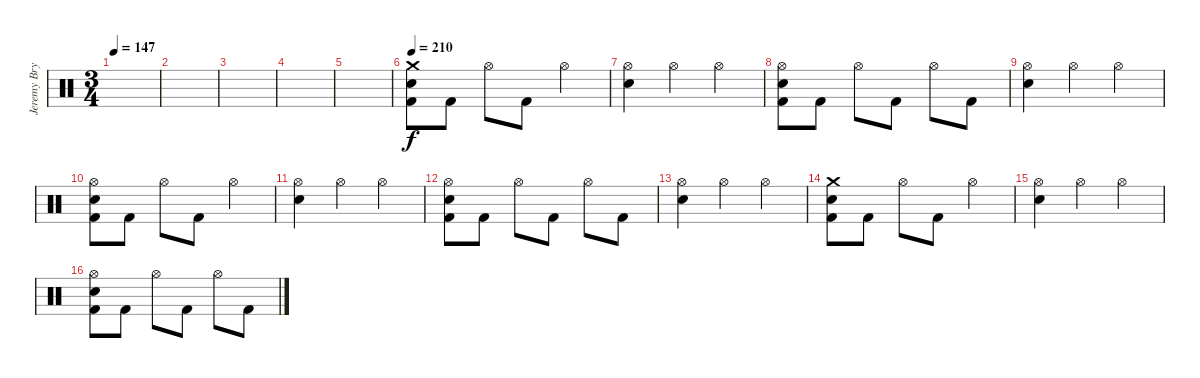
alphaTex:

\track ("Jeremy Bryan - Drums" "Jeremy Bry") {instrument percussion}
\staff {score}
\articulation defaults
\ts (3 4)
\tempo 147
\clef neutral
\ks c
|
|
|
|
|
\tempo 210
("Crash medium (hit)" "Electric Snare (hit)" "Kick (hit) 2").8 "Kick (hit) 2".8 "Hi-Hat (open)".8 "Kick (hit) 2".8 "Hi-Hat (open)".4 |
("Hi-Hat (open)" "Electric Snare (hit)").4 "Hi-Hat (open)".4 "Hi-Hat (open)".4 |
("Hi-Hat (open)" "Electric Snare (hit)" "Kick (hit) 2").8 "Kick (hit) 2".8 "Hi-Hat (open)".8 "Kick (hit) 2".8 "Hi-Hat (open)".8 "Kick (hit) 2".8 |
("Hi-Hat (open)" "Electric Snare (hit)").4 "Hi-Hat (open)".4 "Hi-Hat (open)".4 |
("Hi-Hat (open)" "Electric Snare (hit)" "Kick (hit) 2").8 "Kick (hit) 2".8 "Hi-Hat (open)".8 "Kick (hit) 2".8 "Hi-Hat (open)".4 |
("Hi-Hat (open)" "Electric Snare (hit)").4 "Hi-Hat (open)".4 "Hi-Hat (open)".4 |
("Hi-Hat (open)" "Electric Snare (hit)" "Kick (hit) 2").8 "Kick (hit) 2".8 "Hi-Hat (open)".8 "Kick (hit) 2".8 "Hi-Hat (open)".8 "Kick (hit) 2".8 |
("Hi-Hat (open)" "Electric Snare (hit)").4 "Hi-Hat (open)".4 "Hi-Hat (open)".4 |
("Crash medium (hit)" "Electric Snare (hit)" "Kick (hit) 2").8 "Kick (hit) 2".8 "Hi-Hat (open)".8 "Kick (hit) 2".8 "Hi-Hat (open)".4 |
("Hi-Hat (open)" "Electric Snare (hit)").4 "Hi-Hat (open)".4 "Hi-Hat (open)".4 |
("Hi-Hat (open)" "Electric Snare (hit)" "Kick (hit) 2").8 "Kick (hit) 2".8 "Hi-Hat (open)".8 "Kick (hit) 2".8 "Hi-Hat (open)".8 "Kick (hit) 2".8
